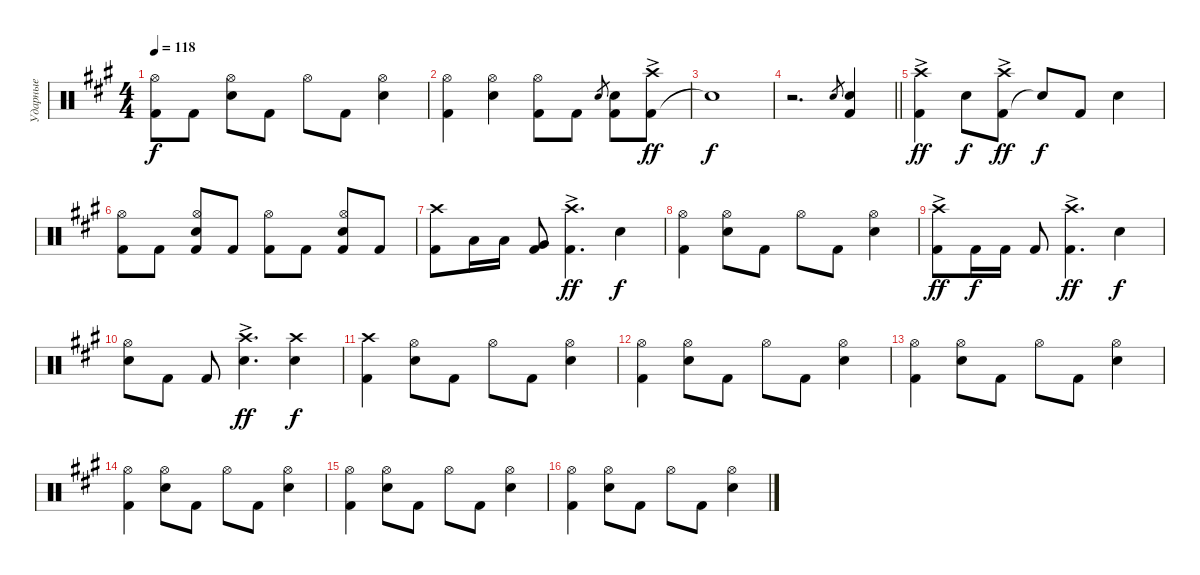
\track ("Ударные" "Ударные") {instrument percussion}
\staff {score}
\articulation defaults
\ts (4 4)
\tempo 118
\clef neutral
\ks a
("Kick (hit) 2" "Hi-Hat (open)").8{dy f} "Kick (hit) 2".8 ("Snare (hit) 2" "Hi-Hat (open)").8 "Kick (hit) 2".8 "Hi-Hat (open)".8 "Kick (hit) 2".8 ("Snare (hit) 2" "Hi-Hat (open)").4 |
("Kick (hit) 2" "Hi-Hat (open)").4 ("Snare (hit) 2" "Hi-Hat (open)").4 ("Kick (hit) 2" "Hi-Hat (open)").8 "Kick (hit) 2".8 "Snare (hit) 2".8{gr} ("Kick (hit) 2" "Snare (hit) 2").8 ("Kick (hit) 2" "Crash high (hit)"{ac}).8{dy ff} |
"Snare (hit)"{t}.1{dy f} |
\barLineRight lightlight
r.2{d} "Snare (hit) 2".8{gr} ("Kick (hit) 2" "Snare (hit) 2").4 |
("Kick (hit) 2" "Crash high (hit)"{ac}).4{dy ff} "Snare (hit) 2".8{dy f} ("Kick (hit) 2" "Crash high (hit)"{ac}).8{dy ff} "Snare (hit)"{t}.8{dy f} "Kick (hit) 2".8 "Snare (hit) 2".4 |
("Kick (hit) 2" "Hi-Hat (open)").8 "Kick (hit) 2".8 ("Kick (hit) 2" "Snare (hit) 2" "Hi-Hat (open)").8 "Kick (hit) 2".8 ("Kick (hit) 2" "Hi-Hat (open)").8 "Kick (hit) 2".8 ("Kick (hit) 2" "Snare (hit) 2" "Hi-Hat (open)").8 "Kick (hit) 2".8 |
("Kick (hit) 2" "Crash high (hit)").8 "Low Tom (hit)".16 "Low Tom (hit)".16 ("Kick (hit) 2" "Very Low Tom (hit)").8 ("Kick (hit) 2" "Crash high (hit)"{ac}).4{d dy ff} "Snare (hit) 2".4{dy f} |
("Kick (hit) 2" "Hi-Hat (open)").4 ("Snare (hit) 2" "Hi-Hat (open)").8 "Kick (hit) 2".8 "Hi-Hat (open)".8 "Kick (hit) 2".8 ("Snare (hit) 2" "Hi-Hat (open)").4 |
("Kick (hit) 2" "Crash high (hit)"{ac}).8{dy ff} "Kick (hit) 2".16{dy f} "Kick (hit) 2".16 "Kick (hit) 2".8 ("Kick (hit) 2" "Crash high (hit)"{ac}).4{d dy ff} "Snare (hit) 2".4{dy f} |
("Snare (hit) 2" "Hi-Hat (open)").8 "Kick (hit) 2".8 "Kick (hit) 2".8 ("Snare (hit) 2" "Crash high (hit)"{ac}).4{d dy ff} ("Snare (hit) 2" "Crash high (hit)").4{dy f} |
("Kick (hit) 2" "Crash high (hit)").4 ("Snare (hit) 2" "Hi-Hat (open)").8 "Kick (hit) 2".8 "Hi-Hat (open)".8 "Kick (hit) 2".8 ("Snare (hit) 2" "Hi-Hat (open)").4 |
("Kick (hit) 2" "Hi-Hat (open)").4 ("Snare (hit) 2" "Hi-Hat (open)").8 "Kick (hit) 2".8 "Hi-Hat (open)".8 "Kick (hit) 2".8 ("Snare (hit) 2" "Hi-Hat (open)").4 |
("Kick (hit) 2" "Hi-Hat (open)").4 ("Snare (hit) 2" "Hi-Hat (open)").8 "Kick (hit) 2".8 "Hi-Hat (open)".8 "Kick (hit) 2".8 ("Snare (hit) 2" "Hi-Hat (open)").4 |
("Kick (hit) 2" "Hi-Hat (open)").4 ("Snare (hit) 2" "Hi-Hat (open)").8 "Kick (hit) 2".8 "Hi-Hat (open)".8 "Kick (hit) 2".8 ("Snare (hit) 2" "Hi-Hat (open)").4 |
("Kick (hit) 2" "Hi-Hat (open)").4 ("Snare (hit) 2" "Hi-Hat (open)").8 "Kick (hit) 2".8 "Hi-Hat (open)".8 "Kick (hit) 2".8 ("Snare (hit) 2" "Hi-Hat (open)").4 |
("Kick (hit) 2" "Hi-Hat (open)").4 ("Snare (hit) 2" "Hi-Hat (open)").8 "Kick (hit) 2".8 "Hi-Hat (open)".8 "Kick (hit) 2".8 ("Snare (hit) 2" "Hi-Hat (open)").4
